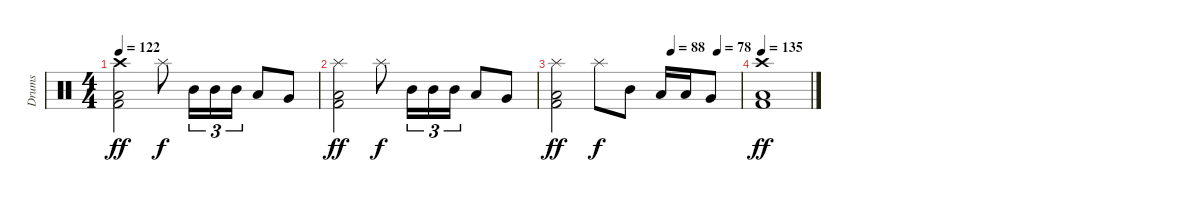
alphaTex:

\track ("Drums" "Drums") {instrument percussion}
\staff {score}
\articulation defaults
\ts (4 4)
\tempo 122
\clef neutral
\ks c
("Crash high (hit)" "Low Floor Tom (hit)" "Kick (hit) 2").2{dy ff} "Splash (hit)".8{dy f} "Mid Tom (hit)".16{tu (3 2)} "Mid Tom (hit)".16{tu (3 2)} "Mid Tom (hit)".16{tu (3 2)} "Low Tom (hit)".8 "Very Low Tom (hit)".8 |
("Splash (hit)" "Low Floor Tom (hit)" "Kick (hit) 2").2{dy ff} "Splash (hit)".8{dy f} "Mid Tom (hit)".16{tu (3 2)} "Mid Tom (hit)".16{tu (3 2)} "Mid Tom (hit)".16{tu (3 2)} "Low Tom (hit)".8 "Very Low Tom (hit)".8 |
\tempo (88 0.625)
\tempo (78 0.875)
("Splash (hit)" "Low Floor Tom (hit)" "Kick (hit) 2").2{dy ff} "Splash (hit)".8{dy f} "Mid Tom (hit)".8 "Low Tom (hit)".16 "Low Tom (hit)".16 "Very Low Tom (hit)".8 |
\tempo 135
("Crash high (hit)" "Low Floor Tom (hit)" "Kick (hit) 2").1{dy ff}
